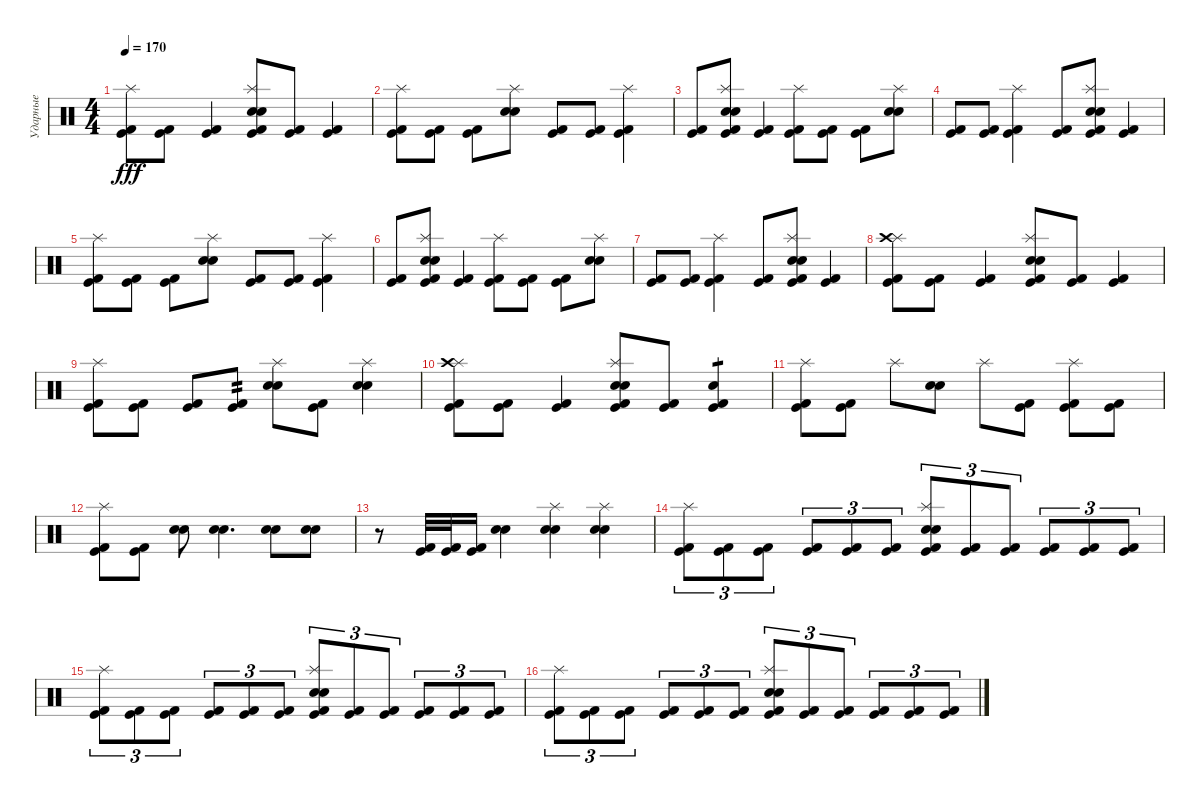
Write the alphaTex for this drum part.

\track ("Ударные" "Ударные") {instrument percussion}
\staff {score}
\articulation defaults
\ts (4 4)
\tempo 170
\clef neutral
\ks c
("Kick (hit) 2" "Kick (hit)" "Splash (hit)").8{dy fff} ("Kick (hit) 2" "Kick (hit)").8 ("Kick (hit) 2" "Kick (hit)").4 ("Kick (hit) 2" "Kick (hit)" "Snare (hit) 2" "Electric Snare (hit)" "Splash (hit)").8 ("Kick (hit) 2" "Kick (hit)").8 ("Kick (hit) 2" "Kick (hit)").4 |
("Kick (hit) 2" "Kick (hit)" "Splash (hit)").8 ("Kick (hit) 2" "Kick (hit)").8 ("Kick (hit) 2" "Kick (hit)").8 ("Snare (hit) 2" "Electric Snare (hit)" "Splash (hit)").8 ("Kick (hit) 2" "Kick (hit)").8 ("Kick (hit) 2" "Kick (hit)").8 ("Kick (hit) 2" "Kick (hit)" "Splash (hit)").4 |
("Kick (hit) 2" "Kick (hit)").8 ("Kick (hit) 2" "Kick (hit)" "Snare (hit) 2" "Electric Snare (hit)" "Splash (hit)").8 ("Kick (hit) 2" "Kick (hit)").4 ("Kick (hit) 2" "Kick (hit)" "Splash (hit)").8 ("Kick (hit) 2" "Kick (hit)").8 ("Kick (hit) 2" "Kick (hit)").8 ("Snare (hit) 2" "Electric Snare (hit)" "Splash (hit)").8 |
("Kick (hit) 2" "Kick (hit)").8 ("Kick (hit) 2" "Kick (hit)").8 ("Kick (hit) 2" "Kick (hit)" "Splash (hit)").4 ("Kick (hit) 2" "Kick (hit)").8 ("Kick (hit) 2" "Kick (hit)" "Snare (hit) 2" "Electric Snare (hit)" "Splash (hit)").8 ("Kick (hit) 2" "Kick (hit)").4 |
("Kick (hit) 2" "Kick (hit)" "Splash (hit)").8 ("Kick (hit) 2" "Kick (hit)").8 ("Kick (hit) 2" "Kick (hit)").8 ("Snare (hit) 2" "Electric Snare (hit)" "Splash (hit)").8 ("Kick (hit) 2" "Kick (hit)").8 ("Kick (hit) 2" "Kick (hit)").8 ("Kick (hit) 2" "Kick (hit)" "Splash (hit)").4 |
("Kick (hit) 2" "Kick (hit)").8 ("Kick (hit) 2" "Kick (hit)" "Snare (hit) 2" "Electric Snare (hit)" "Splash (hit)").8 ("Kick (hit) 2" "Kick (hit)").4 ("Kick (hit) 2" "Kick (hit)" "Splash (hit)").8 ("Kick (hit) 2" "Kick (hit)").8 ("Kick (hit) 2" "Kick (hit)").8 ("Snare (hit) 2" "Electric Snare (hit)" "Splash (hit)").8 |
("Kick (hit) 2" "Kick (hit)").8 ("Kick (hit) 2" "Kick (hit)").8 ("Kick (hit) 2" "Kick (hit)" "Splash (hit)").4 ("Kick (hit) 2" "Kick (hit)").8 ("Kick (hit) 2" "Kick (hit)" "Snare (hit) 2" "Electric Snare (hit)" "Splash (hit)").8 ("Kick (hit) 2" "Kick (hit)").4 |
("Kick (hit) 2" "Kick (hit)" "Splash (hit)" "Crash high (hit)").8 ("Kick (hit) 2" "Kick (hit)").8 ("Kick (hit) 2" "Kick (hit)").4 ("Kick (hit) 2" "Kick (hit)" "Snare (hit) 2" "Electric Snare (hit)" "Splash (hit)").8 ("Kick (hit) 2" "Kick (hit)").8 ("Kick (hit) 2" "Kick (hit)").4 |
("Kick (hit) 2" "Kick (hit)" "Splash (hit)").8 ("Kick (hit) 2" "Kick (hit)").8 ("Kick (hit) 2" "Kick (hit)").8 ("Kick (hit) 2" "Kick (hit)").8{tp 2} ("Snare (hit) 2" "Electric Snare (hit)" "Splash (hit)").8 ("Kick (hit) 2" "Kick (hit)").8 ("Snare (hit) 2" "Electric Snare (hit)" "Splash (hit)").4 |
("Kick (hit) 2" "Kick (hit)" "Splash (hit)" "Crash high (hit)").8 ("Kick (hit) 2" "Kick (hit)").8 ("Kick (hit) 2" "Kick (hit)").4 ("Kick (hit) 2" "Kick (hit)" "Snare (hit) 2" "Electric Snare (hit)" "Splash (hit)").8 ("Kick (hit) 2" "Kick (hit)").8 ("Kick (hit) 2" "Kick (hit)" "Electric Snare (hit)").4{tp 1} |
("Kick (hit) 2" "Kick (hit)" "Splash (hit)").8 ("Kick (hit) 2" "Kick (hit)").8 "Splash (hit)".8 ("Electric Snare (hit)" "Snare (hit) 2").8 "Splash (hit)".8 ("Kick (hit) 2" "Kick (hit)").8 ("Kick (hit) 2" "Kick (hit)" "Splash (hit)").8 ("Kick (hit) 2" "Kick (hit)").8 |
("Kick (hit) 2" "Kick (hit)" "Splash (hit)").8 ("Kick (hit) 2" "Kick (hit)").8 ("Electric Snare (hit)" "Snare (hit) 2").8 ("Electric Snare (hit)" "Snare (hit) 2").4{d} ("Electric Snare (hit)" "Snare (hit) 2").8 ("Electric Snare (hit)" "Snare (hit) 2").8 |
r.8 ("Kick (hit) 2" "Kick (hit)").32 ("Kick (hit) 2" "Kick (hit)").32 ("Kick (hit) 2" "Kick (hit)").16 ("Snare (hit) 2" "Electric Snare (hit)").4 ("Snare (hit) 2" "Electric Snare (hit)" "Splash (hit)").4 ("Snare (hit) 2" "Electric Snare (hit)" "Splash (hit)").4 |
("Kick (hit) 2" "Kick (hit)" "Splash (hit)").8{tu (3 2)} ("Kick (hit) 2" "Kick (hit)").8{tu (3 2)} ("Kick (hit) 2" "Kick (hit)").8{tu (3 2)} ("Kick (hit) 2" "Kick (hit)").8{tu (3 2)} ("Kick (hit) 2" "Kick (hit)").8{tu (3 2)} ("Kick (hit) 2" "Kick (hit)").8{tu (3 2)} ("Kick (hit) 2" "Kick (hit)" "Snare (hit) 2" "Electric Snare (hit)" "Splash (hit)").8{tu (3 2)} ("Kick (hit) 2" "Kick (hit)").8{tu (3 2)} ("Kick (hit) 2" "Kick (hit)").8{tu (3 2)} ("Kick (hit) 2" "Kick (hit)").8{tu (3 2)} ("Kick (hit) 2" "Kick (hit)").8{tu (3 2)} ("Kick (hit) 2" "Kick (hit)").8{tu (3 2)} |
("Kick (hit) 2" "Kick (hit)" "Splash (hit)").8{tu (3 2)} ("Kick (hit) 2" "Kick (hit)").8{tu (3 2)} ("Kick (hit) 2" "Kick (hit)").8{tu (3 2)} ("Kick (hit) 2" "Kick (hit)").8{tu (3 2)} ("Kick (hit) 2" "Kick (hit)").8{tu (3 2)} ("Kick (hit) 2" "Kick (hit)").8{tu (3 2)} ("Kick (hit) 2" "Kick (hit)" "Snare (hit) 2" "Electric Snare (hit)" "Splash (hit)").8{tu (3 2)} ("Kick (hit) 2" "Kick (hit)").8{tu (3 2)} ("Kick (hit) 2" "Kick (hit)").8{tu (3 2)} ("Kick (hit) 2" "Kick (hit)").8{tu (3 2)} ("Kick (hit) 2" "Kick (hit)").8{tu (3 2)} ("Kick (hit) 2" "Kick (hit)").8{tu (3 2)} |
("Kick (hit) 2" "Kick (hit)" "Splash (hit)").8{tu (3 2)} ("Kick (hit) 2" "Kick (hit)").8{tu (3 2)} ("Kick (hit) 2" "Kick (hit)").8{tu (3 2)} ("Kick (hit) 2" "Kick (hit)").8{tu (3 2)} ("Kick (hit) 2" "Kick (hit)").8{tu (3 2)} ("Kick (hit) 2" "Kick (hit)").8{tu (3 2)} ("Kick (hit) 2" "Kick (hit)" "Snare (hit) 2" "Electric Snare (hit)" "Splash (hit)").8{tu (3 2)} ("Kick (hit) 2" "Kick (hit)").8{tu (3 2)} ("Kick (hit) 2" "Kick (hit)").8{tu (3 2)} ("Kick (hit) 2" "Kick (hit)").8{tu (3 2)} ("Kick (hit) 2" "Kick (hit)").8{tu (3 2)} ("Kick (hit) 2" "Kick (hit)").8{tu (3 2)}
